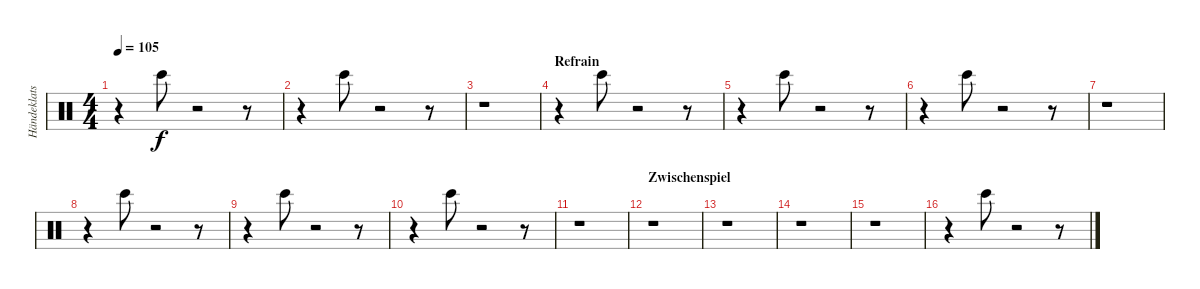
\track ("Händeklatschen" "Händeklats") {instrument percussion}
\staff {score}
\articulation defaults
\ts (4 4)
\tempo 105
\clef neutral
\ks c
r.4{dy f} "Bongo High (hit)".8 r.2 r.8 |
r.4 "Bongo High (hit)".8 r.2 r.8 |
r.1 |
\section ("" "Refrain")
r.4 "Bongo High (hit)".8 r.2 r.8 |
r.4 "Bongo High (hit)".8 r.2 r.8 |
r.4 "Bongo High (hit)".8 r.2 r.8 |
r.1 |
r.4 "Bongo High (hit)".8 r.2 r.8 |
r.4 "Bongo High (hit)".8 r.2 r.8 |
r.4 "Bongo High (hit)".8 r.2 r.8 |
r.1 |
\section ("" "Zwischenspiel")
r.1 |
r.1 |
r.1 |
r.1 |
r.4 "Bongo High (hit)".8 r.2 r.8
